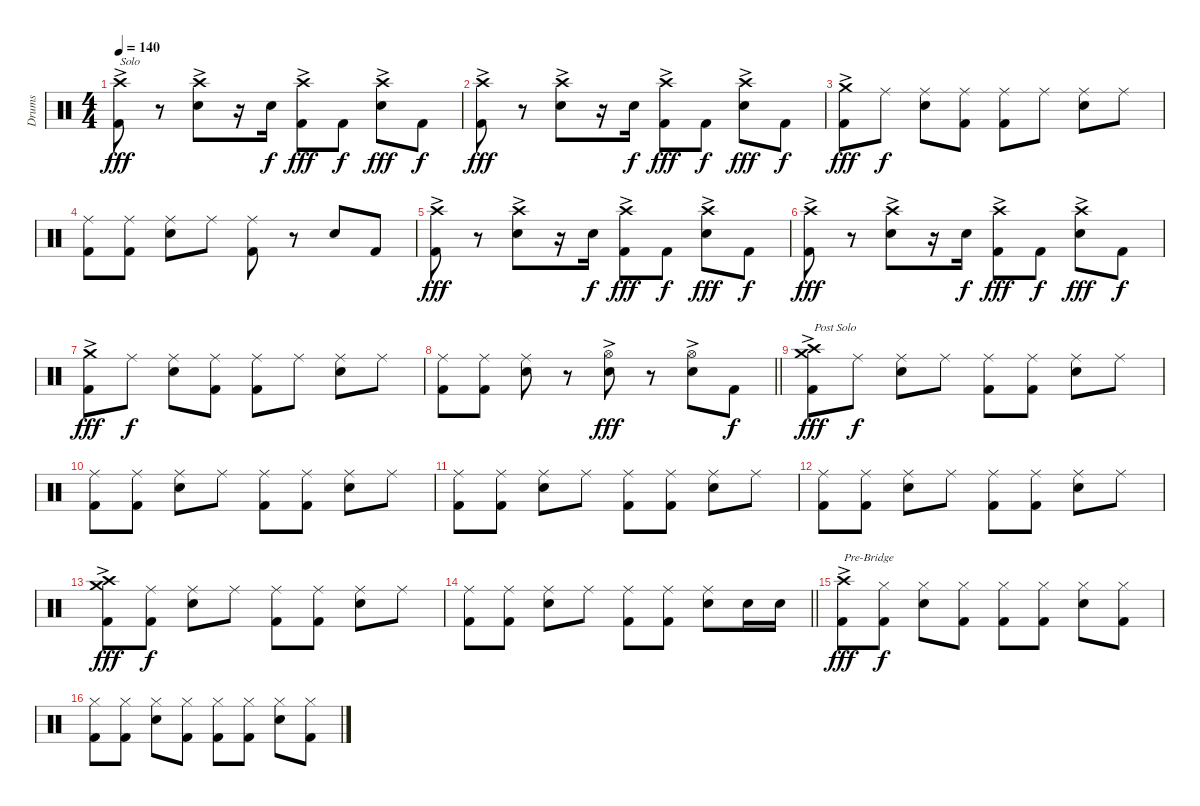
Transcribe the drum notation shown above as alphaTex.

\track ("Drums" "Drums") {instrument percussion}
\staff {score}
\articulation defaults
\ts (4 4)
\tempo 140
\clef neutral
\ks c
("Crash high (hit)"{ac} "Kick (hit) 2").8{txt "Solo" dy fff} r.8 ("Crash high (hit)"{ac} "Electric Snare (hit)").8 r.16 "Electric Snare (hit)".16{dy f} ("Crash high (hit)"{ac} "Kick (hit) 2").8{dy fff} "Kick (hit) 2".8{dy f} ("Crash high (hit)"{ac} "Electric Snare (hit)").8{dy fff} "Kick (hit) 2".8{dy f} |
("Crash high (hit)"{ac} "Kick (hit) 2").8{dy fff} r.8 ("Crash high (hit)"{ac} "Electric Snare (hit)").8 r.16 "Electric Snare (hit)".16{dy f} ("Crash high (hit)"{ac} "Kick (hit) 2").8{dy fff} "Kick (hit) 2".8{dy f} ("Crash high (hit)"{ac} "Electric Snare (hit)").8{dy fff} "Kick (hit) 2".8{dy f} |
("Crash medium (hit)"{ac} "Kick (hit) 2").8{dy fff} "Ride (middle)".8{dy f} ("Ride (middle)" "Electric Snare (hit)").8 ("Ride (middle)" "Kick (hit) 2").8 ("Ride (middle)" "Kick (hit) 2").8 "Ride (middle)".8 ("Ride (middle)" "Electric Snare (hit)").8 "Ride (middle)".8 |
("Ride (middle)" "Kick (hit) 2").8 ("Ride (middle)" "Kick (hit) 2").8 ("Ride (middle)" "Electric Snare (hit)").8 "Ride (middle)".8 ("Ride (middle)" "Kick (hit) 2").8 r.8 "Electric Snare (hit)".8 "Kick (hit) 2".8 |
("Crash high (hit)"{ac} "Kick (hit) 2").8{dy fff} r.8 ("Crash high (hit)"{ac} "Electric Snare (hit)").8 r.16 "Electric Snare (hit)".16{dy f} ("Crash high (hit)"{ac} "Kick (hit) 2").8{dy fff} "Kick (hit) 2".8{dy f} ("Crash high (hit)"{ac} "Electric Snare (hit)").8{dy fff} "Kick (hit) 2".8{dy f} |
("Crash high (hit)"{ac} "Kick (hit) 2").8{dy fff} r.8 ("Crash high (hit)"{ac} "Electric Snare (hit)").8 r.16 "Electric Snare (hit)".16{dy f} ("Crash high (hit)"{ac} "Kick (hit) 2").8{dy fff} "Kick (hit) 2".8{dy f} ("Crash high (hit)"{ac} "Electric Snare (hit)").8{dy fff} "Kick (hit) 2".8{dy f} |
("Crash medium (hit)"{ac} "Kick (hit) 2").8{dy fff} "Ride (middle)".8{dy f} ("Ride (middle)" "Electric Snare (hit)").8 ("Ride (middle)" "Kick (hit) 2").8 ("Ride (middle)" "Kick (hit) 2").8 "Ride (middle)".8 ("Ride (middle)" "Electric Snare (hit)").8 "Ride (middle)".8 |
\barLineRight lightlight
("Ride (middle)" "Kick (hit) 2").8 ("Ride (middle)" "Kick (hit) 2").8 ("Ride (middle)" "Electric Snare (hit)").8 r.8 ("Hi-Hat (open)"{ac} "Electric Snare (hit)").8{dy fff} r.8 ("Hi-Hat (open)"{ac} "Electric Snare (hit)").8 "Kick (hit) 2".8{dy f} |
("Crash medium (hit)"{ac} "Crash high (hit)"{ac} "Kick (hit) 2").8{txt "Post Solo" dy fff} "Ride (middle)".8{dy f} ("Ride (middle)" "Electric Snare (hit)").8 "Ride (middle)".8 ("Ride (middle)" "Kick (hit) 2").8 ("Ride (middle)" "Kick (hit) 2").8 ("Ride (middle)" "Electric Snare (hit)").8 "Ride (middle)".8 |
("Ride (middle)" "Kick (hit) 2").8 ("Ride (middle)" "Kick (hit) 2").8 ("Ride (middle)" "Electric Snare (hit)").8 "Ride (middle)".8 ("Ride (middle)" "Kick (hit) 2").8 ("Ride (middle)" "Kick (hit) 2").8 ("Ride (middle)" "Electric Snare (hit)").8 "Ride (middle)".8 |
("Ride (middle)" "Kick (hit) 2").8 ("Ride (middle)" "Kick (hit) 2").8 ("Ride (middle)" "Electric Snare (hit)").8 "Ride (middle)".8 ("Ride (middle)" "Kick (hit) 2").8 ("Ride (middle)" "Kick (hit) 2").8 ("Ride (middle)" "Electric Snare (hit)").8 "Ride (middle)".8 |
("Ride (middle)" "Kick (hit) 2").8 ("Ride (middle)" "Kick (hit) 2").8 ("Ride (middle)" "Electric Snare (hit)").8 "Ride (middle)".8 ("Ride (middle)" "Kick (hit) 2").8 ("Ride (middle)" "Kick (hit) 2").8 ("Ride (middle)" "Electric Snare (hit)").8 "Ride (middle)".8 |
("Crash medium (hit)"{ac} "Crash high (hit)"{ac} "Kick (hit) 2").8{dy fff} ("Ride (middle)" "Kick (hit) 2").8{dy f} ("Ride (middle)" "Electric Snare (hit)").8 "Ride (middle)".8 ("Ride (middle)" "Kick (hit) 2").8 ("Ride (middle)" "Kick (hit) 2").8 ("Ride (middle)" "Electric Snare (hit)").8 "Ride (middle)".8 |
\barLineRight lightlight
("Ride (middle)" "Kick (hit) 2").8 ("Ride (middle)" "Kick (hit) 2").8 ("Ride (middle)" "Electric Snare (hit)").8 "Ride (middle)".8 ("Ride (middle)" "Kick (hit) 2").8 ("Ride (middle)" "Kick (hit) 2").8 ("Ride (middle)" "Electric Snare (hit)").8 "Electric Snare (hit)".16 "Electric Snare (hit)".16 |
("Crash high (hit)"{ac} "Kick (hit) 2").8{txt "Pre-Bridge" dy fff} ("Hi-Hat (closed)" "Kick (hit) 2").8{dy f} ("Hi-Hat (closed)" "Electric Snare (hit)").8 ("Hi-Hat (closed)" "Kick (hit) 2").8 ("Hi-Hat (closed)" "Kick (hit) 2").8 ("Hi-Hat (closed)" "Kick (hit) 2").8 ("Hi-Hat (closed)" "Electric Snare (hit)").8 ("Hi-Hat (closed)" "Kick (hit) 2").8 |
("Hi-Hat (closed)" "Kick (hit) 2").8 ("Hi-Hat (closed)" "Kick (hit) 2").8 ("Hi-Hat (closed)" "Electric Snare (hit)").8 ("Hi-Hat (closed)" "Kick (hit) 2").8 ("Hi-Hat (closed)" "Kick (hit) 2").8 ("Hi-Hat (closed)" "Kick (hit) 2").8 ("Hi-Hat (closed)" "Electric Snare (hit)").8 ("Hi-Hat (closed)" "Kick (hit) 2").8
